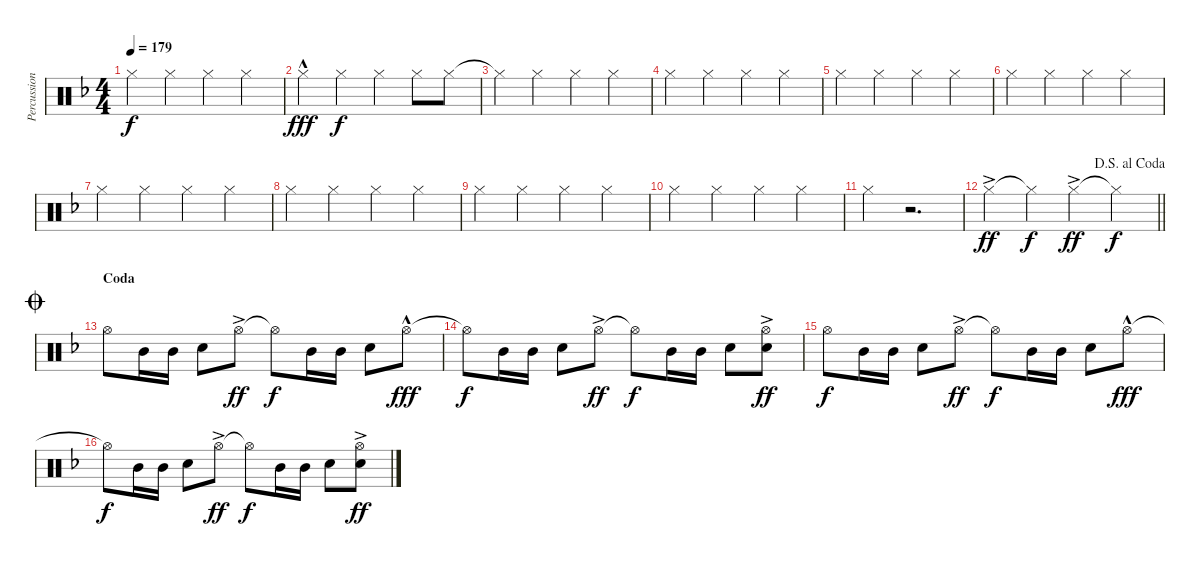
\track ("Percussion 01" "Percussion") {instrument percussion}
\staff {score}
\articulation defaults
\ts (4 4)
\tempo 179
\clef neutral
\ks dminor "Hi-Hat (closed)".4{dy f} "Hi-Hat (closed)".4 "Hi-Hat (closed)".4 "Hi-Hat (closed)".4
|
"Hi-Hat (closed)"{hac}.4{dy fff} "Hi-Hat (closed)".4{dy f} "Hi-Hat (closed)".4 "Hi-Hat (closed)".8 "Hi-Hat (closed)".8 |
"Hi-Hat (closed)"{t}.4 "Hi-Hat (closed)".4 "Hi-Hat (closed)".4 "Hi-Hat (closed)".4 |
"Hi-Hat (closed)".4 "Hi-Hat (closed)".4 "Hi-Hat (closed)".4 "Hi-Hat (closed)".4 |
"Hi-Hat (closed)".4 "Hi-Hat (closed)".4 "Hi-Hat (closed)".4 "Hi-Hat (closed)".4 |
"Hi-Hat (closed)".4 "Hi-Hat (closed)".4 "Hi-Hat (closed)".4 "Hi-Hat (closed)".4 |
"Hi-Hat (closed)".4 "Hi-Hat (closed)".4 "Hi-Hat (closed)".4 "Hi-Hat (closed)".4 |
"Hi-Hat (closed)".4 "Hi-Hat (closed)".4 "Hi-Hat (closed)".4 "Hi-Hat (closed)".4 |
"Hi-Hat (closed)".4 "Hi-Hat (closed)".4 "Hi-Hat (closed)".4 "Hi-Hat (closed)".4 |
"Hi-Hat (closed)".4 "Hi-Hat (closed)".4 "Hi-Hat (closed)".4 "Hi-Hat (closed)".4 |
"Hi-Hat (closed)".4 r.2{d} |
\jump dalsegnoalcoda
\barLineRight lightlight "Hi-Hat (closed)"{ac}.4{dy ff} "Hi-Hat (closed)"{t}.4{dy f} "Hi-Hat (closed)"{ac}.4{dy ff} "Hi-Hat (closed)"{t}.4{dy f}
|
\section ("" "Coda")
\jump coda "Hi-Hat (open)".8 "Mid Tom (hit)".16 "Mid Tom (hit)".16 "Snare (hit) 2".8 "Hi-Hat (open)"{ac}.8{dy ff} "Hi-Hat (open)"{t}.8{dy f} "Mid Tom (hit)".16 "Mid Tom (hit)".16 "Snare (hit) 2".8 "Hi-Hat (open)"{hac}.8{dy fff}
|
"Hi-Hat (open)"{t}.8{dy f} "Mid Tom (hit)".16 "Mid Tom (hit)".16 "Snare (hit) 2".8 "Hi-Hat (open)"{ac}.8{dy ff} "Hi-Hat (open)"{t}.8{dy f} "Mid Tom (hit)".16 "Mid Tom (hit)".16 "Snare (hit) 2".8 ("Hi-Hat (open)"{ac} "Snare (hit) 2").8{dy ff} |
"Hi-Hat (open)".8{dy f} "Mid Tom (hit)".16 "Mid Tom (hit)".16 "Snare (hit) 2".8 "Hi-Hat (open)"{ac}.8{dy ff} "Hi-Hat (open)"{t}.8{dy f} "Mid Tom (hit)".16 "Mid Tom (hit)".16 "Snare (hit) 2".8 "Hi-Hat (open)"{hac}.8{dy fff} |
"Hi-Hat (open)"{t}.8{dy f} "Mid Tom (hit)".16 "Mid Tom (hit)".16 "Snare (hit) 2".8 "Hi-Hat (open)"{ac}.8{dy ff} "Hi-Hat (open)"{t}.8{dy f} "Mid Tom (hit)".16 "Mid Tom (hit)".16 "Snare (hit) 2".8 ("Hi-Hat (open)"{ac} "Snare (hit) 2").8{dy ff}
